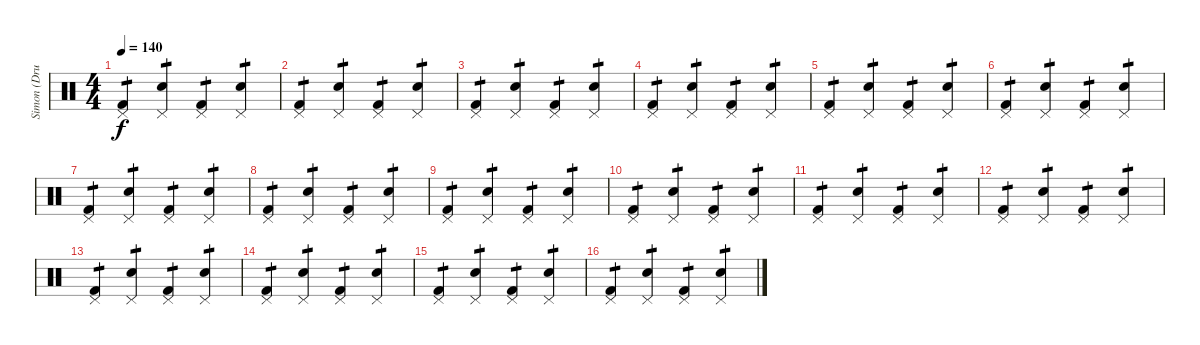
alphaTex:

\track ("Simon (Drums)" "Simon (Dru") {instrument percussion}
\staff {score}
\articulation defaults
\ts (4 4)
\tempo 140
\clef neutral
\ks c
("Kick (hit) 2" "Pedal Hi-Hat (hit)").4{tp 1 dy f} ("Snare (hit) 2" "Pedal Hi-Hat (hit)").4{tp 1} ("Kick (hit) 2" "Pedal Hi-Hat (hit)").4{tp 1} ("Snare (hit) 2" "Pedal Hi-Hat (hit)").4{tp 1} |
("Kick (hit) 2" "Pedal Hi-Hat (hit)").4{tp 1} ("Snare (hit) 2" "Pedal Hi-Hat (hit)").4{tp 1} ("Kick (hit) 2" "Pedal Hi-Hat (hit)").4{tp 1} ("Snare (hit) 2" "Pedal Hi-Hat (hit)").4{tp 1} |
("Kick (hit) 2" "Pedal Hi-Hat (hit)").4{tp 1} ("Snare (hit) 2" "Pedal Hi-Hat (hit)").4{tp 1} ("Kick (hit) 2" "Pedal Hi-Hat (hit)").4{tp 1} ("Snare (hit) 2" "Pedal Hi-Hat (hit)").4{tp 1} |
("Kick (hit) 2" "Pedal Hi-Hat (hit)").4{tp 1} ("Snare (hit) 2" "Pedal Hi-Hat (hit)").4{tp 1} ("Kick (hit) 2" "Pedal Hi-Hat (hit)").4{tp 1} ("Snare (hit) 2" "Pedal Hi-Hat (hit)").4{tp 1} |
("Kick (hit) 2" "Pedal Hi-Hat (hit)").4{tp 1} ("Snare (hit) 2" "Pedal Hi-Hat (hit)").4{tp 1} ("Kick (hit) 2" "Pedal Hi-Hat (hit)").4{tp 1} ("Snare (hit) 2" "Pedal Hi-Hat (hit)").4{tp 1} |
("Kick (hit) 2" "Pedal Hi-Hat (hit)").4{tp 1} ("Snare (hit) 2" "Pedal Hi-Hat (hit)").4{tp 1} ("Kick (hit) 2" "Pedal Hi-Hat (hit)").4{tp 1} ("Snare (hit) 2" "Pedal Hi-Hat (hit)").4{tp 1} |
("Kick (hit) 2" "Pedal Hi-Hat (hit)").4{tp 1} ("Snare (hit) 2" "Pedal Hi-Hat (hit)").4{tp 1} ("Kick (hit) 2" "Pedal Hi-Hat (hit)").4{tp 1} ("Snare (hit) 2" "Pedal Hi-Hat (hit)").4{tp 1} |
("Kick (hit) 2" "Pedal Hi-Hat (hit)").4{tp 1} ("Snare (hit) 2" "Pedal Hi-Hat (hit)").4{tp 1} ("Kick (hit) 2" "Pedal Hi-Hat (hit)").4{tp 1} ("Snare (hit) 2" "Pedal Hi-Hat (hit)").4{tp 1} |
("Kick (hit) 2" "Pedal Hi-Hat (hit)").4{tp 1} ("Snare (hit) 2" "Pedal Hi-Hat (hit)").4{tp 1} ("Kick (hit) 2" "Pedal Hi-Hat (hit)").4{tp 1} ("Snare (hit) 2" "Pedal Hi-Hat (hit)").4{tp 1} |
("Kick (hit) 2" "Pedal Hi-Hat (hit)").4{tp 1} ("Snare (hit) 2" "Pedal Hi-Hat (hit)").4{tp 1} ("Kick (hit) 2" "Pedal Hi-Hat (hit)").4{tp 1} ("Snare (hit) 2" "Pedal Hi-Hat (hit)").4{tp 1} |
("Kick (hit) 2" "Pedal Hi-Hat (hit)").4{tp 1} ("Snare (hit) 2" "Pedal Hi-Hat (hit)").4{tp 1} ("Kick (hit) 2" "Pedal Hi-Hat (hit)").4{tp 1} ("Snare (hit) 2" "Pedal Hi-Hat (hit)").4{tp 1} |
("Kick (hit) 2" "Pedal Hi-Hat (hit)").4{tp 1} ("Snare (hit) 2" "Pedal Hi-Hat (hit)").4{tp 1} ("Kick (hit) 2" "Pedal Hi-Hat (hit)").4{tp 1} ("Snare (hit) 2" "Pedal Hi-Hat (hit)").4{tp 1} |
("Kick (hit) 2" "Pedal Hi-Hat (hit)").4{tp 1} ("Snare (hit) 2" "Pedal Hi-Hat (hit)").4{tp 1} ("Kick (hit) 2" "Pedal Hi-Hat (hit)").4{tp 1} ("Snare (hit) 2" "Pedal Hi-Hat (hit)").4{tp 1} |
("Kick (hit) 2" "Pedal Hi-Hat (hit)").4{tp 1} ("Snare (hit) 2" "Pedal Hi-Hat (hit)").4{tp 1} ("Kick (hit) 2" "Pedal Hi-Hat (hit)").4{tp 1} ("Snare (hit) 2" "Pedal Hi-Hat (hit)").4{tp 1} |
("Kick (hit) 2" "Pedal Hi-Hat (hit)").4{tp 1} ("Snare (hit) 2" "Pedal Hi-Hat (hit)").4{tp 1} ("Kick (hit) 2" "Pedal Hi-Hat (hit)").4{tp 1} ("Snare (hit) 2" "Pedal Hi-Hat (hit)").4{tp 1} |
("Kick (hit) 2" "Pedal Hi-Hat (hit)").4{tp 1} ("Snare (hit) 2" "Pedal Hi-Hat (hit)").4{tp 1} ("Kick (hit) 2" "Pedal Hi-Hat (hit)").4{tp 1} ("Snare (hit) 2" "Pedal Hi-Hat (hit)").4{tp 1}
